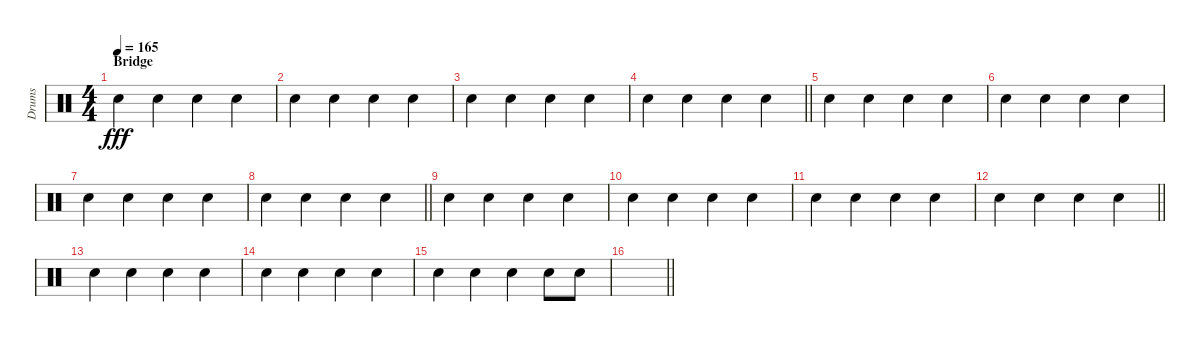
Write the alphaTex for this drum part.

\track ("Drums" "Drums") {instrument percussion}
\staff {score}
\articulation defaults
\ts (4 4)
\section ("" "Bridge")
\tempo 165
\clef neutral
\ks c "Electric Snare (hit)".4{dy fff} "Electric Snare (hit)".4 "Electric Snare (hit)".4 "Electric Snare (hit)".4
|
"Electric Snare (hit)".4 "Electric Snare (hit)".4 "Electric Snare (hit)".4 "Electric Snare (hit)".4 |
"Electric Snare (hit)".4 "Electric Snare (hit)".4 "Electric Snare (hit)".4 "Electric Snare (hit)".4 |
\barLineRight lightlight "Electric Snare (hit)".4 "Electric Snare (hit)".4 "Electric Snare (hit)".4 "Electric Snare (hit)".4
|
"Electric Snare (hit)".4 "Electric Snare (hit)".4 "Electric Snare (hit)".4 "Electric Snare (hit)".4 |
"Electric Snare (hit)".4 "Electric Snare (hit)".4 "Electric Snare (hit)".4 "Electric Snare (hit)".4 |
"Electric Snare (hit)".4 "Electric Snare (hit)".4 "Electric Snare (hit)".4 "Electric Snare (hit)".4 |
\barLineRight lightlight "Electric Snare (hit)".4 "Electric Snare (hit)".4 "Electric Snare (hit)".4 "Electric Snare (hit)".4
|
"Electric Snare (hit)".4 "Electric Snare (hit)".4 "Electric Snare (hit)".4 "Electric Snare (hit)".4 |
"Electric Snare (hit)".4 "Electric Snare (hit)".4 "Electric Snare (hit)".4 "Electric Snare (hit)".4 |
"Electric Snare (hit)".4 "Electric Snare (hit)".4 "Electric Snare (hit)".4 "Electric Snare (hit)".4 |
\barLineRight lightlight "Electric Snare (hit)".4 "Electric Snare (hit)".4 "Electric Snare (hit)".4 "Electric Snare (hit)".4
|
"Electric Snare (hit)".4 "Electric Snare (hit)".4 "Electric Snare (hit)".4 "Electric Snare (hit)".4 |
"Electric Snare (hit)".4 "Electric Snare (hit)".4 "Electric Snare (hit)".4 "Electric Snare (hit)".4 |
"Electric Snare (hit)".4 "Electric Snare (hit)".4 "Electric Snare (hit)".4 "Electric Snare (hit)".8 "Electric Snare (hit)".8 |
\barLineRight lightlight
